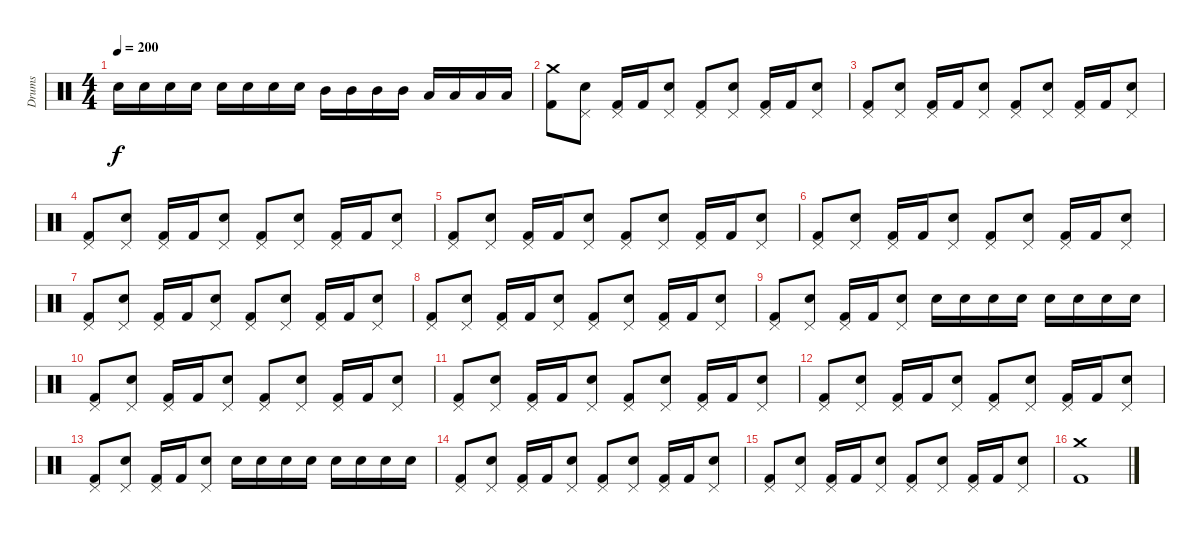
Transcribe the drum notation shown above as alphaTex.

\track ("Drums" "Drums") {instrument percussion}
\staff {score}
\articulation defaults
\ts (4 4)
\tempo 200
\clef neutral
\ks c "Snare (hit) 2".16{dy f} "Snare (hit) 2".16 "Snare (hit) 2".16 "Snare (hit) 2".16 "Snare (hit) 2".16 "Snare (hit) 2".16 "Snare (hit) 2".16 "Snare (hit) 2".16 "Mid Tom (hit)".16 "Mid Tom (hit)".16 "Mid Tom (hit)".16 "Mid Tom (hit)".16 "Low Tom (hit)".16 "Low Tom (hit)".16 "Low Tom (hit)".16 "Low Tom (hit)".16
|
("Crash medium (hit)" "Kick (hit) 2").8 ("Pedal Hi-Hat (hit)" "Snare (hit) 2").8 ("Pedal Hi-Hat (hit)" "Kick (hit) 2").16 "Kick (hit) 2".16 ("Pedal Hi-Hat (hit)" "Snare (hit) 2").8 ("Pedal Hi-Hat (hit)" "Kick (hit) 2").8 ("Pedal Hi-Hat (hit)" "Snare (hit) 2").8 ("Pedal Hi-Hat (hit)" "Kick (hit) 2").16 "Kick (hit) 2".16 ("Pedal Hi-Hat (hit)" "Snare (hit) 2").8 |
("Pedal Hi-Hat (hit)" "Kick (hit) 2").8 ("Pedal Hi-Hat (hit)" "Snare (hit) 2").8 ("Pedal Hi-Hat (hit)" "Kick (hit) 2").16 "Kick (hit) 2".16 ("Pedal Hi-Hat (hit)" "Snare (hit) 2").8 ("Pedal Hi-Hat (hit)" "Kick (hit) 2").8 ("Pedal Hi-Hat (hit)" "Snare (hit) 2").8 ("Pedal Hi-Hat (hit)" "Kick (hit) 2").16 "Kick (hit) 2".16 ("Pedal Hi-Hat (hit)" "Snare (hit) 2").8 |
("Pedal Hi-Hat (hit)" "Kick (hit) 2").8 ("Pedal Hi-Hat (hit)" "Snare (hit) 2").8 ("Pedal Hi-Hat (hit)" "Kick (hit) 2").16 "Kick (hit) 2".16 ("Pedal Hi-Hat (hit)" "Snare (hit) 2").8 ("Pedal Hi-Hat (hit)" "Kick (hit) 2").8 ("Pedal Hi-Hat (hit)" "Snare (hit) 2").8 ("Pedal Hi-Hat (hit)" "Kick (hit) 2").16 "Kick (hit) 2".16 ("Pedal Hi-Hat (hit)" "Snare (hit) 2").8 |
("Pedal Hi-Hat (hit)" "Kick (hit) 2").8 ("Pedal Hi-Hat (hit)" "Snare (hit) 2").8 ("Pedal Hi-Hat (hit)" "Kick (hit) 2").16 "Kick (hit) 2".16 ("Pedal Hi-Hat (hit)" "Snare (hit) 2").8 ("Pedal Hi-Hat (hit)" "Kick (hit) 2").8 ("Pedal Hi-Hat (hit)" "Snare (hit) 2").8 ("Pedal Hi-Hat (hit)" "Kick (hit) 2").16 "Kick (hit) 2".16 ("Pedal Hi-Hat (hit)" "Snare (hit) 2").8 |
("Pedal Hi-Hat (hit)" "Kick (hit) 2").8 ("Pedal Hi-Hat (hit)" "Snare (hit) 2").8 ("Pedal Hi-Hat (hit)" "Kick (hit) 2").16 "Kick (hit) 2".16 ("Pedal Hi-Hat (hit)" "Snare (hit) 2").8 ("Pedal Hi-Hat (hit)" "Kick (hit) 2").8 ("Pedal Hi-Hat (hit)" "Snare (hit) 2").8 ("Pedal Hi-Hat (hit)" "Kick (hit) 2").16 "Kick (hit) 2".16 ("Pedal Hi-Hat (hit)" "Snare (hit) 2").8 |
("Pedal Hi-Hat (hit)" "Kick (hit) 2").8 ("Pedal Hi-Hat (hit)" "Snare (hit) 2").8 ("Pedal Hi-Hat (hit)" "Kick (hit) 2").16 "Kick (hit) 2".16 ("Pedal Hi-Hat (hit)" "Snare (hit) 2").8 ("Pedal Hi-Hat (hit)" "Kick (hit) 2").8 ("Pedal Hi-Hat (hit)" "Snare (hit) 2").8 ("Pedal Hi-Hat (hit)" "Kick (hit) 2").16 "Kick (hit) 2".16 ("Pedal Hi-Hat (hit)" "Snare (hit) 2").8 |
("Pedal Hi-Hat (hit)" "Kick (hit) 2").8 ("Pedal Hi-Hat (hit)" "Snare (hit) 2").8 ("Pedal Hi-Hat (hit)" "Kick (hit) 2").16 "Kick (hit) 2".16 ("Pedal Hi-Hat (hit)" "Snare (hit) 2").8 ("Pedal Hi-Hat (hit)" "Kick (hit) 2").8 ("Pedal Hi-Hat (hit)" "Snare (hit) 2").8 ("Pedal Hi-Hat (hit)" "Kick (hit) 2").16 "Kick (hit) 2".16 ("Pedal Hi-Hat (hit)" "Snare (hit) 2").8 |
("Pedal Hi-Hat (hit)" "Kick (hit) 2").8 ("Pedal Hi-Hat (hit)" "Snare (hit) 2").8 ("Pedal Hi-Hat (hit)" "Kick (hit) 2").16 "Kick (hit) 2".16 ("Pedal Hi-Hat (hit)" "Snare (hit) 2").8 "Snare (hit) 2".16 "Snare (hit) 2".16 "Snare (hit) 2".16 "Snare (hit) 2".16 "Snare (hit) 2".16 "Snare (hit) 2".16 "Snare (hit) 2".16 "Snare (hit) 2".16 |
("Pedal Hi-Hat (hit)" "Kick (hit) 2").8 ("Pedal Hi-Hat (hit)" "Snare (hit) 2").8 ("Pedal Hi-Hat (hit)" "Kick (hit) 2").16 "Kick (hit) 2".16 ("Pedal Hi-Hat (hit)" "Snare (hit) 2").8 ("Pedal Hi-Hat (hit)" "Kick (hit) 2").8 ("Pedal Hi-Hat (hit)" "Snare (hit) 2").8 ("Pedal Hi-Hat (hit)" "Kick (hit) 2").16 "Kick (hit) 2".16 ("Pedal Hi-Hat (hit)" "Snare (hit) 2").8 |
("Pedal Hi-Hat (hit)" "Kick (hit) 2").8 ("Pedal Hi-Hat (hit)" "Snare (hit) 2").8 ("Pedal Hi-Hat (hit)" "Kick (hit) 2").16 "Kick (hit) 2".16 ("Pedal Hi-Hat (hit)" "Snare (hit) 2").8 ("Pedal Hi-Hat (hit)" "Kick (hit) 2").8 ("Pedal Hi-Hat (hit)" "Snare (hit) 2").8 ("Pedal Hi-Hat (hit)" "Kick (hit) 2").16 "Kick (hit) 2".16 ("Pedal Hi-Hat (hit)" "Snare (hit) 2").8 |
("Pedal Hi-Hat (hit)" "Kick (hit) 2").8 ("Pedal Hi-Hat (hit)" "Snare (hit) 2").8 ("Pedal Hi-Hat (hit)" "Kick (hit) 2").16 "Kick (hit) 2".16 ("Pedal Hi-Hat (hit)" "Snare (hit) 2").8 ("Pedal Hi-Hat (hit)" "Kick (hit) 2").8 ("Pedal Hi-Hat (hit)" "Snare (hit) 2").8 ("Pedal Hi-Hat (hit)" "Kick (hit) 2").16 "Kick (hit) 2".16 ("Pedal Hi-Hat (hit)" "Snare (hit) 2").8 |
("Pedal Hi-Hat (hit)" "Kick (hit) 2").8 ("Pedal Hi-Hat (hit)" "Snare (hit) 2").8 ("Pedal Hi-Hat (hit)" "Kick (hit) 2").16 "Kick (hit) 2".16 ("Pedal Hi-Hat (hit)" "Snare (hit) 2").8 "Snare (hit) 2".16 "Snare (hit) 2".16 "Snare (hit) 2".16 "Snare (hit) 2".16 "Snare (hit) 2".16 "Snare (hit) 2".16 "Snare (hit) 2".16 "Snare (hit) 2".16 |
("Pedal Hi-Hat (hit)" "Kick (hit) 2").8 ("Pedal Hi-Hat (hit)" "Snare (hit) 2").8 ("Pedal Hi-Hat (hit)" "Kick (hit) 2").16 "Kick (hit) 2".16 ("Pedal Hi-Hat (hit)" "Snare (hit) 2").8 ("Pedal Hi-Hat (hit)" "Kick (hit) 2").8 ("Pedal Hi-Hat (hit)" "Snare (hit) 2").8 ("Pedal Hi-Hat (hit)" "Kick (hit) 2").16 "Kick (hit) 2".16 ("Pedal Hi-Hat (hit)" "Snare (hit) 2").8 |
("Pedal Hi-Hat (hit)" "Kick (hit) 2").8 ("Pedal Hi-Hat (hit)" "Snare (hit) 2").8 ("Pedal Hi-Hat (hit)" "Kick (hit) 2").16 "Kick (hit) 2".16 ("Pedal Hi-Hat (hit)" "Snare (hit) 2").8 ("Pedal Hi-Hat (hit)" "Kick (hit) 2").8 ("Pedal Hi-Hat (hit)" "Snare (hit) 2").8 ("Pedal Hi-Hat (hit)" "Kick (hit) 2").16 "Kick (hit) 2".16 ("Pedal Hi-Hat (hit)" "Snare (hit) 2").8 |
("Crash medium (hit)" "Kick (hit) 2").1
